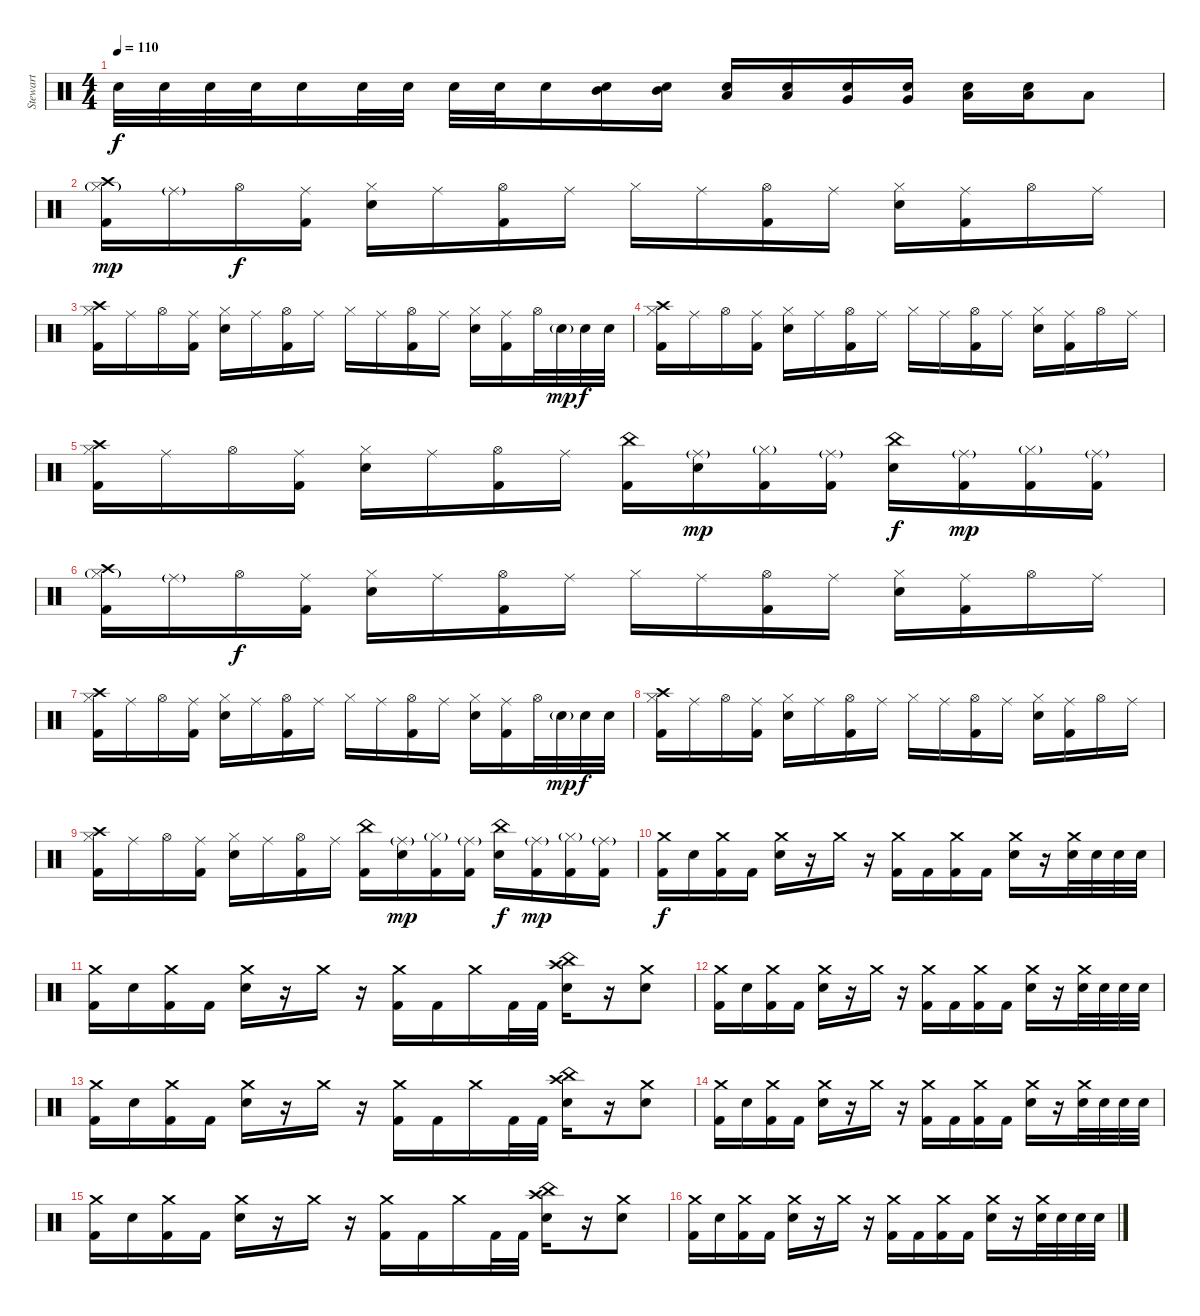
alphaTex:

\track ("Stewart" "Stewart") {instrument percussion}
\staff {score}
\articulation defaults
\ts (4 4)
\tempo 110
\clef neutral
\ks c "Electric Snare (hit)".32{dy f} "Electric Snare (hit)".32 "Electric Snare (hit)".32 "Electric Snare (hit)".32 "Electric Snare (hit)".16 "Electric Snare (hit)".32 "Electric Snare (hit)".32 "Electric Snare (hit)".32 "Electric Snare (hit)".32 "Electric Snare (hit)".16
("Mid Tom (hit)" "Snare (hit) 2").16 ("Mid Tom (hit)" "Snare (hit) 2").16 ("Low Tom (hit)" "Snare (hit) 2").16 ("Low Tom (hit)" "Snare (hit) 2").16 ("Very Low Tom (hit)" "Snare (hit) 2").16 ("Very Low Tom (hit)" "Snare (hit) 2").16 ("Low Floor Tom (hit)" "Snare (hit) 2").16 ("Low Floor Tom (hit)" "Snare (hit) 2").16 "Low Tom (hit)".8 |
("Hi-Hat (closed)"{g} "Crash high (hit)" "Kick (hit) 2").16{dy mp} "Ride (middle)"{g}.16 "Hi-Hat (open)".16{dy f} ("Ride (middle)" "Kick (hit) 2").16 ("Hi-Hat (closed)" "Electric Snare (hit)").16 "Ride (middle)".16 ("Hi-Hat (open)" "Kick (hit) 2").16 "Ride (middle)".16 "Hi-Hat (closed)".16 "Ride (middle)".16 ("Hi-Hat (open)" "Kick (hit) 2").16 "Ride (middle)".16 ("Hi-Hat (closed)" "Electric Snare (hit)").16 ("Ride (middle)" "Kick (hit) 2").16 "Hi-Hat (open)".16 "Ride (middle)".16 |
("Hi-Hat (closed)" "Crash high (hit)" "Kick (hit) 2").16 "Ride (middle)".16 "Hi-Hat (open)".16 ("Ride (middle)" "Kick (hit) 2").16 ("Hi-Hat (closed)" "Electric Snare (hit)").16 "Ride (middle)".16 ("Hi-Hat (open)" "Kick (hit) 2").16 "Ride (middle)".16 "Hi-Hat (closed)".16 "Ride (middle)".16 ("Hi-Hat (open)" "Kick (hit) 2").16 "Ride (middle)".16 ("Hi-Hat (closed)" "Electric Snare (hit)").16 ("Ride (middle)" "Kick (hit) 2").16 "Hi-Hat (open)".32 "Snare (hit) 2"{g}.32{dy mp} "Snare (hit) 2".32{dy f} "Snare (hit) 2".32 |
("Hi-Hat (closed)" "Crash high (hit)" "Kick (hit) 2").16 "Ride (middle)".16 "Hi-Hat (open)".16 ("Ride (middle)" "Kick (hit) 2").16 ("Hi-Hat (closed)" "Electric Snare (hit)").16 "Ride (middle)".16 ("Hi-Hat (open)" "Kick (hit) 2").16 "Ride (middle)".16 "Hi-Hat (closed)".16 "Ride (middle)".16 ("Hi-Hat (open)" "Kick (hit) 2").16 "Ride (middle)".16 ("Hi-Hat (closed)" "Electric Snare (hit)").16 ("Ride (middle)" "Kick (hit) 2").16 "Hi-Hat (open)".16 "Ride (middle)".16 |
("Hi-Hat (closed)" "Crash high (hit)" "Kick (hit) 2").16 "Ride (middle)".16 "Hi-Hat (open)".16 ("Ride (middle)" "Kick (hit) 2").16 ("Hi-Hat (closed)" "Electric Snare (hit)").16 "Ride (middle)".16 ("Hi-Hat (open)" "Kick (hit) 2").16 "Ride (middle)".16 ("China (hit)" "Kick (hit) 2").16 ("Ride (middle)"{g} "Snare (hit) 2").16{dy mp} ("Hi-Hat (closed)"{g} "Kick (hit) 2").16 ("Ride (middle)"{g} "Kick (hit) 2").16 ("China (hit)" "Electric Snare (hit)").16{dy f} ("Ride (middle)"{g} "Kick (hit) 2").16{dy mp} ("Hi-Hat (closed)"{g} "Kick (hit) 2").16 ("Ride (middle)"{g} "Kick (hit) 2").16 |
("Hi-Hat (closed)"{g} "Crash high (hit)" "Kick (hit) 2").16 "Ride (middle)"{g}.16 "Hi-Hat (open)".16{dy f} ("Ride (middle)" "Kick (hit) 2").16 ("Hi-Hat (closed)" "Electric Snare (hit)").16 "Ride (middle)".16 ("Hi-Hat (open)" "Kick (hit) 2").16 "Ride (middle)".16 "Hi-Hat (closed)".16 "Ride (middle)".16 ("Hi-Hat (open)" "Kick (hit) 2").16 "Ride (middle)".16 ("Hi-Hat (closed)" "Electric Snare (hit)").16 ("Ride (middle)" "Kick (hit) 2").16 "Hi-Hat (open)".16 "Ride (middle)".16 |
("Hi-Hat (closed)" "Crash high (hit)" "Kick (hit) 2").16 "Ride (middle)".16 "Hi-Hat (open)".16 ("Ride (middle)" "Kick (hit) 2").16 ("Hi-Hat (closed)" "Electric Snare (hit)").16 "Ride (middle)".16 ("Hi-Hat (open)" "Kick (hit) 2").16 "Ride (middle)".16 "Hi-Hat (closed)".16 "Ride (middle)".16 ("Hi-Hat (open)" "Kick (hit) 2").16 "Ride (middle)".16 ("Hi-Hat (closed)" "Electric Snare (hit)").16 ("Ride (middle)" "Kick (hit) 2").16 "Hi-Hat (open)".32 "Snare (hit) 2"{g}.32{dy mp} "Snare (hit) 2".32{dy f} "Snare (hit) 2".32 |
("Hi-Hat (closed)" "Crash high (hit)" "Kick (hit) 2").16 "Ride (middle)".16 "Hi-Hat (open)".16 ("Ride (middle)" "Kick (hit) 2").16 ("Hi-Hat (closed)" "Electric Snare (hit)").16 "Ride (middle)".16 ("Hi-Hat (open)" "Kick (hit) 2").16 "Ride (middle)".16 "Hi-Hat (closed)".16 "Ride (middle)".16 ("Hi-Hat (open)" "Kick (hit) 2").16 "Ride (middle)".16 ("Hi-Hat (closed)" "Electric Snare (hit)").16 ("Ride (middle)" "Kick (hit) 2").16 "Hi-Hat (open)".16 "Ride (middle)".16 |
("Hi-Hat (closed)" "Crash high (hit)" "Kick (hit) 2").16 "Ride (middle)".16 "Hi-Hat (open)".16 ("Ride (middle)" "Kick (hit) 2").16 ("Hi-Hat (closed)" "Electric Snare (hit)").16 "Ride (middle)".16 ("Hi-Hat (open)" "Kick (hit) 2").16 "Ride (middle)".16 ("China (hit)" "Kick (hit) 2").16 ("Ride (middle)"{g} "Snare (hit) 2").16{dy mp} ("Hi-Hat (closed)"{g} "Kick (hit) 2").16 ("Ride (middle)"{g} "Kick (hit) 2").16 ("China (hit)" "Electric Snare (hit)").16{dy f} ("Ride (middle)"{g} "Kick (hit) 2").16{dy mp} ("Hi-Hat (closed)"{g} "Kick (hit) 2").16 ("Ride (middle)"{g} "Kick (hit) 2").16 |
("Crash medium (hit)" "Kick (hit) 2").16{dy f} "Electric Snare (hit)".16 ("Crash medium (hit)" "Kick (hit) 2").16 "Kick (hit) 2".16 ("Crash medium (hit)" "Electric Snare (hit)").16 r.16 "Crash medium (hit)".16 r.16 ("Crash medium (hit)" "Kick (hit) 2").16 "Kick (hit) 2".16 ("Crash medium (hit)" "Kick (hit) 2").16 "Kick (hit) 2".16 ("Crash medium (hit)" "Electric Snare (hit)").16 r.16 ("Crash medium (hit)" "Electric Snare (hit)").32 "Electric Snare (hit)".32 "Electric Snare (hit)".32 "Electric Snare (hit)".32 |
("Crash medium (hit)" "Kick (hit) 2").16 "Electric Snare (hit)".16 ("Crash medium (hit)" "Kick (hit) 2").16 "Kick (hit) 2".16 ("Crash medium (hit)" "Electric Snare (hit)").16 r.16 "Crash medium (hit)".16 r.16 ("Crash medium (hit)" "Kick (hit) 2").16 "Kick (hit) 2".16 "Crash medium (hit)".16 "Kick (hit) 2".32 "Kick (hit) 2".32 ("Crash high (hit)" "China (hit)" "Electric Snare (hit)").16 r.16 ("Crash medium (hit)" "Electric Snare (hit)").8 |
("Crash medium (hit)" "Kick (hit) 2").16 "Electric Snare (hit)".16 ("Crash medium (hit)" "Kick (hit) 2").16 "Kick (hit) 2".16 ("Crash medium (hit)" "Electric Snare (hit)").16 r.16 "Crash medium (hit)".16 r.16 ("Crash medium (hit)" "Kick (hit) 2").16 "Kick (hit) 2".16 ("Crash medium (hit)" "Kick (hit) 2").16 "Kick (hit) 2".16 ("Crash medium (hit)" "Electric Snare (hit)").16 r.16 ("Crash medium (hit)" "Electric Snare (hit)").32 "Electric Snare (hit)".32 "Electric Snare (hit)".32 "Electric Snare (hit)".32 |
("Crash medium (hit)" "Kick (hit) 2").16 "Electric Snare (hit)".16 ("Crash medium (hit)" "Kick (hit) 2").16 "Kick (hit) 2".16 ("Crash medium (hit)" "Electric Snare (hit)").16 r.16 "Crash medium (hit)".16 r.16 ("Crash medium (hit)" "Kick (hit) 2").16 "Kick (hit) 2".16 "Crash medium (hit)".16 "Kick (hit) 2".32 "Kick (hit) 2".32 ("Crash high (hit)" "China (hit)" "Electric Snare (hit)").16 r.16 ("Crash medium (hit)" "Electric Snare (hit)").8 |
("Crash medium (hit)" "Kick (hit) 2").16 "Electric Snare (hit)".16 ("Crash medium (hit)" "Kick (hit) 2").16 "Kick (hit) 2".16 ("Crash medium (hit)" "Electric Snare (hit)").16 r.16 "Crash medium (hit)".16 r.16 ("Crash medium (hit)" "Kick (hit) 2").16 "Kick (hit) 2".16 ("Crash medium (hit)" "Kick (hit) 2").16 "Kick (hit) 2".16 ("Crash medium (hit)" "Electric Snare (hit)").16 r.16 ("Crash medium (hit)" "Electric Snare (hit)").32 "Electric Snare (hit)".32 "Electric Snare (hit)".32 "Electric Snare (hit)".32 |
("Crash medium (hit)" "Kick (hit) 2").16 "Electric Snare (hit)".16 ("Crash medium (hit)" "Kick (hit) 2").16 "Kick (hit) 2".16 ("Crash medium (hit)" "Electric Snare (hit)").16 r.16 "Crash medium (hit)".16 r.16 ("Crash medium (hit)" "Kick (hit) 2").16 "Kick (hit) 2".16 "Crash medium (hit)".16 "Kick (hit) 2".32 "Kick (hit) 2".32 ("Crash high (hit)" "China (hit)" "Electric Snare (hit)").16 r.16 ("Crash medium (hit)" "Electric Snare (hit)").8 |
("Crash medium (hit)" "Kick (hit) 2").16 "Electric Snare (hit)".16 ("Crash medium (hit)" "Kick (hit) 2").16 "Kick (hit) 2".16 ("Crash medium (hit)" "Electric Snare (hit)").16 r.16 "Crash medium (hit)".16 r.16 ("Crash medium (hit)" "Kick (hit) 2").16 "Kick (hit) 2".16 ("Crash medium (hit)" "Kick (hit) 2").16 "Kick (hit) 2".16 ("Crash medium (hit)" "Electric Snare (hit)").16 r.16 ("Crash medium (hit)" "Electric Snare (hit)").32 "Electric Snare (hit)".32 "Electric Snare (hit)".32 "Electric Snare (hit)".32
